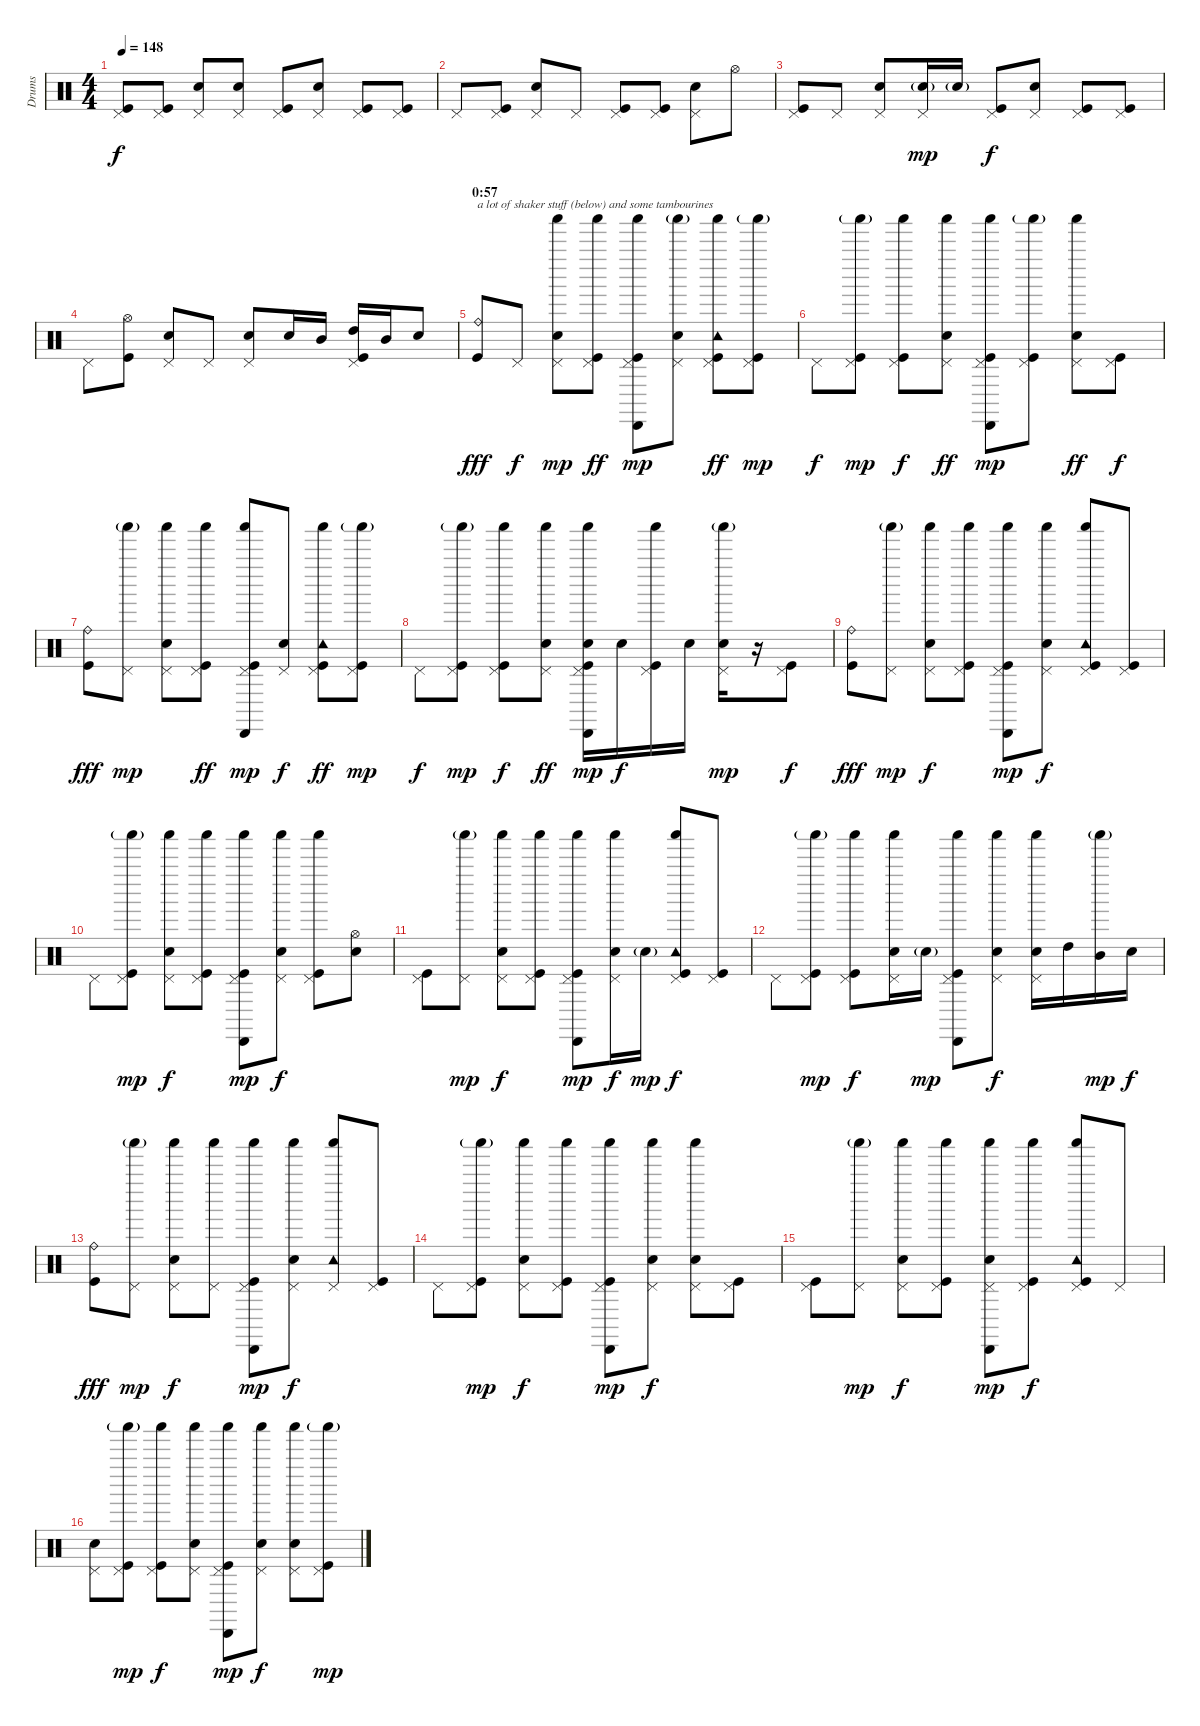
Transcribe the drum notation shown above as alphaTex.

\track ("Drums" "Drums") {instrument percussion}
\staff {score}
\articulation defaults
\ts (4 4)
\tempo 148
\clef neutral
\ks c
("Pedal Hi-Hat (hit)" "Kick (hit)").8{dy f} ("Pedal Hi-Hat (hit)" "Kick (hit)").8 ("Pedal Hi-Hat (hit)" "Electric Snare (hit)").8 ("Pedal Hi-Hat (hit)" "Electric Snare (hit)").8 ("Pedal Hi-Hat (hit)" "Kick (hit)").8 ("Pedal Hi-Hat (hit)" "Electric Snare (hit)").8 ("Pedal Hi-Hat (hit)" "Kick (hit)").8 ("Pedal Hi-Hat (hit)" "Kick (hit)").8 |
"Pedal Hi-Hat (hit)".8 ("Pedal Hi-Hat (hit)" "Kick (hit)").8 ("Pedal Hi-Hat (hit)" "Electric Snare (hit)").8 "Pedal Hi-Hat (hit)".8 ("Pedal Hi-Hat (hit)" "Kick (hit)").8 ("Pedal Hi-Hat (hit)" "Kick (hit)").8 ("Pedal Hi-Hat (hit)" "Electric Snare (hit)").8 "Hi-Hat (open)".8 |
("Pedal Hi-Hat (hit)" "Kick (hit)").8 "Pedal Hi-Hat (hit)".8 ("Pedal Hi-Hat (hit)" "Electric Snare (hit)").8 ("Pedal Hi-Hat (hit)" "Electric Snare (hit)"{g}).16{dy mp} "Electric Snare (hit)"{g}.16 ("Pedal Hi-Hat (hit)" "Kick (hit)").8{dy f} ("Pedal Hi-Hat (hit)" "Electric Snare (hit)").8 ("Pedal Hi-Hat (hit)" "Kick (hit)").8 ("Pedal Hi-Hat (hit)" "Kick (hit)").8 |
"Pedal Hi-Hat (hit)".8 ("Hi-Hat (open)" "Kick (hit)").8 ("Pedal Hi-Hat (hit)" "Electric Snare (hit)").8 "Pedal Hi-Hat (hit)".8 ("Pedal Hi-Hat (hit)" "Electric Snare (hit)").8 "Electric Snare (hit)".16 "Mid Tom (hit)".16 ("Pedal Hi-Hat (hit)" "High Tom (hit)" "Kick (hit)").16 "Mid Tom (hit)".16 "Electric Snare (hit)".8 |
\section ("" "0:57")
("Ride (bell)" "Kick (hit)").8{txt "a lot of shaker stuff (below) and some tambourines" dy fff} "Pedal Hi-Hat (hit)".8{dy f} ("Pedal Hi-Hat (hit)" "Electric Snare (hit)" "Shaker (hit)").8{dy mp} ("Pedal Hi-Hat (hit)" "Kick (hit)" "Shaker (hit)").8{dy ff} ("Pedal Hi-Hat (hit)" "Kick (hit)" "Cabasa (hit)" "Shaker (hit)").8{dy mp} ("Pedal Hi-Hat (hit)" "Electric Snare (hit)" "Shaker (hit)"{g}).8 ("Pedal Hi-Hat (hit)" "Tambourine (hit)" "Kick (hit)" "Shaker (hit)").8{dy ff} ("Pedal Hi-Hat (hit)" "Kick (hit)" "Shaker (hit)"{g}).8{dy mp} |
"Pedal Hi-Hat (hit)".8{dy f} ("Pedal Hi-Hat (hit)" "Kick (hit)" "Shaker (hit)"{g}).8{dy mp} ("Pedal Hi-Hat (hit)" "Kick (hit)" "Shaker (hit)").8{dy f} ("Pedal Hi-Hat (hit)" "Electric Snare (hit)" "Shaker (hit)").8{dy ff} ("Pedal Hi-Hat (hit)" "Kick (hit)" "Shaker (hit)" "Cabasa (hit)").8{dy mp} ("Pedal Hi-Hat (hit)" "Kick (hit)" "Shaker (hit)"{g}).8 ("Pedal Hi-Hat (hit)" "Electric Snare (hit)" "Shaker (hit)").8{dy ff} ("Pedal Hi-Hat (hit)" "Kick (hit)").8{dy f} |
("Ride (bell)" "Kick (hit)").8{dy fff} ("Pedal Hi-Hat (hit)" "Shaker (hit)"{g}).8{dy mp} ("Pedal Hi-Hat (hit)" "Electric Snare (hit)" "Shaker (hit)").8 ("Pedal Hi-Hat (hit)" "Kick (hit)" "Shaker (hit)").8{dy ff} ("Pedal Hi-Hat (hit)" "Kick (hit)" "Cabasa (hit)" "Shaker (hit)").8{dy mp} ("Pedal Hi-Hat (hit)" "Electric Snare (hit)").8{dy f} ("Pedal Hi-Hat (hit)" "Tambourine (hit)" "Kick (hit)" "Shaker (hit)").8{dy ff} ("Pedal Hi-Hat (hit)" "Kick (hit)" "Shaker (hit)"{g}).8{dy mp} |
"Pedal Hi-Hat (hit)".8{dy f} ("Pedal Hi-Hat (hit)" "Kick (hit)" "Shaker (hit)"{g}).8{dy mp} ("Pedal Hi-Hat (hit)" "Kick (hit)" "Shaker (hit)").8{dy f} ("Pedal Hi-Hat (hit)" "Electric Snare (hit)" "Shaker (hit)").8{dy ff} ("Pedal Hi-Hat (hit)" "Electric Snare (hit)" "Kick (hit)" "Shaker (hit)" "Cabasa (hit)").16{dy mp} "Electric Snare (hit)".16{dy f} ("Pedal Hi-Hat (hit)" "Kick (hit)" "Shaker (hit)").16 "Electric Snare (hit)".16 ("Pedal Hi-Hat (hit)" "Electric Snare (hit)" "Shaker (hit)"{g}).16{dy mp} r.16 ("Pedal Hi-Hat (hit)" "Kick (hit)").8{dy f} |
("Ride (bell)" "Kick (hit)").8{dy fff} ("Pedal Hi-Hat (hit)" "Shaker (hit)"{g}).8{dy mp} ("Pedal Hi-Hat (hit)" "Electric Snare (hit)" "Shaker (hit)").8{dy f} ("Pedal Hi-Hat (hit)" "Kick (hit)" "Shaker (hit)").8 ("Pedal Hi-Hat (hit)" "Kick (hit)" "Cabasa (hit)" "Shaker (hit)").8{dy mp} ("Pedal Hi-Hat (hit)" "Electric Snare (hit)" "Shaker (hit)").8{dy f} ("Pedal Hi-Hat (hit)" "Tambourine (hit)" "Kick (hit)" "Shaker (hit)").8 ("Pedal Hi-Hat (hit)" "Kick (hit)").8 |
"Pedal Hi-Hat (hit)".8 ("Pedal Hi-Hat (hit)" "Kick (hit)" "Shaker (hit)"{g}).8{dy mp} ("Pedal Hi-Hat (hit)" "Electric Snare (hit)" "Shaker (hit)").8{dy f} ("Pedal Hi-Hat (hit)" "Kick (hit)" "Shaker (hit)").8 ("Pedal Hi-Hat (hit)" "Kick (hit)" "Cabasa (hit)" "Shaker (hit)").8{dy mp} ("Pedal Hi-Hat (hit)" "Electric Snare (hit)" "Shaker (hit)").8{dy f} ("Pedal Hi-Hat (hit)" "Kick (hit)" "Shaker (hit)").8 ("Hi-Hat (open)" "Electric Snare (hit)").8 |
("Pedal Hi-Hat (hit)" "Kick (hit)").8 ("Pedal Hi-Hat (hit)" "Shaker (hit)"{g}).8{dy mp} ("Pedal Hi-Hat (hit)" "Electric Snare (hit)" "Shaker (hit)").8{dy f} ("Pedal Hi-Hat (hit)" "Kick (hit)" "Shaker (hit)").8 ("Pedal Hi-Hat (hit)" "Kick (hit)" "Cabasa (hit)" "Shaker (hit)").8{dy mp} ("Pedal Hi-Hat (hit)" "Electric Snare (hit)" "Shaker (hit)").16{dy f} "Electric Snare (hit)"{g}.16{dy mp} ("Pedal Hi-Hat (hit)" "Tambourine (hit)" "Kick (hit)" "Shaker (hit)").8{dy f} ("Pedal Hi-Hat (hit)" "Kick (hit)").8 |
"Pedal Hi-Hat (hit)".8 ("Pedal Hi-Hat (hit)" "Kick (hit)" "Shaker (hit)"{g}).8{dy mp} ("Pedal Hi-Hat (hit)" "Kick (hit)" "Shaker (hit)").8{dy f} ("Pedal Hi-Hat (hit)" "Electric Snare (hit)" "Shaker (hit)").16 "Electric Snare (hit)"{g}.16{dy mp} ("Pedal Hi-Hat (hit)" "Kick (hit)" "Cabasa (hit)" "Shaker (hit)").8 ("Pedal Hi-Hat (hit)" "Electric Snare (hit)" "Shaker (hit)").8{dy f} ("Pedal Hi-Hat (hit)" "Electric Snare (hit)" "Shaker (hit)").16 "High Tom (hit)".16 ("Mid Tom (hit)" "Shaker (hit)"{g}).16{dy mp} "Electric Snare (hit)".16{dy f} |
("Ride (bell)" "Kick (hit)").8{dy fff} ("Pedal Hi-Hat (hit)" "Shaker (hit)"{g}).8{dy mp} ("Pedal Hi-Hat (hit)" "Electric Snare (hit)" "Shaker (hit)").8{dy f} ("Pedal Hi-Hat (hit)" "Shaker (hit)").8 ("Pedal Hi-Hat (hit)" "Kick (hit)" "Cabasa (hit)" "Shaker (hit)").8{dy mp} ("Pedal Hi-Hat (hit)" "Electric Snare (hit)" "Shaker (hit)").8{dy f} ("Pedal Hi-Hat (hit)" "Tambourine (hit)" "Shaker (hit)").8 ("Pedal Hi-Hat (hit)" "Kick (hit)").8 |
"Pedal Hi-Hat (hit)".8 ("Pedal Hi-Hat (hit)" "Kick (hit)" "Shaker (hit)"{g}).8{dy mp} ("Pedal Hi-Hat (hit)" "Electric Snare (hit)" "Shaker (hit)").8{dy f} ("Pedal Hi-Hat (hit)" "Kick (hit)" "Shaker (hit)").8 ("Pedal Hi-Hat (hit)" "Kick (hit)" "Cabasa (hit)" "Shaker (hit)").8{dy mp} ("Pedal Hi-Hat (hit)" "Electric Snare (hit)" "Shaker (hit)").8{dy f} ("Pedal Hi-Hat (hit)" "Electric Snare (hit)" "Shaker (hit)").8 ("Pedal Hi-Hat (hit)" "Kick (hit)").8 |
("Pedal Hi-Hat (hit)" "Kick (hit)").8 ("Pedal Hi-Hat (hit)" "Shaker (hit)"{g}).8{dy mp} ("Pedal Hi-Hat (hit)" "Electric Snare (hit)" "Shaker (hit)").8{dy f} ("Pedal Hi-Hat (hit)" "Kick (hit)" "Shaker (hit)").8 ("Pedal Hi-Hat (hit)" "Electric Snare (hit)" "Cabasa (hit)" "Shaker (hit)").8{dy mp} ("Pedal Hi-Hat (hit)" "Kick (hit)" "Shaker (hit)").8{dy f} ("Pedal Hi-Hat (hit)" "Tambourine (hit)" "Kick (hit)" "Shaker (hit)").8 "Pedal Hi-Hat (hit)".8 |
("Pedal Hi-Hat (hit)" "Electric Snare (hit)").8 ("Pedal Hi-Hat (hit)" "Kick (hit)" "Shaker (hit)"{g}).8{dy mp} ("Pedal Hi-Hat (hit)" "Kick (hit)" "Shaker (hit)").8{dy f} ("Pedal Hi-Hat (hit)" "Electric Snare (hit)" "Shaker (hit)").8 ("Pedal Hi-Hat (hit)" "Kick (hit)" "Cabasa (hit)" "Shaker (hit)").8{dy mp} ("Pedal Hi-Hat (hit)" "Electric Snare (hit)" "Shaker (hit)").8{dy f} ("Pedal Hi-Hat (hit)" "Electric Snare (hit)" "Shaker (hit)").8 ("Pedal Hi-Hat (hit)" "Kick (hit)" "Shaker (hit)"{g}).8{dy mp}
